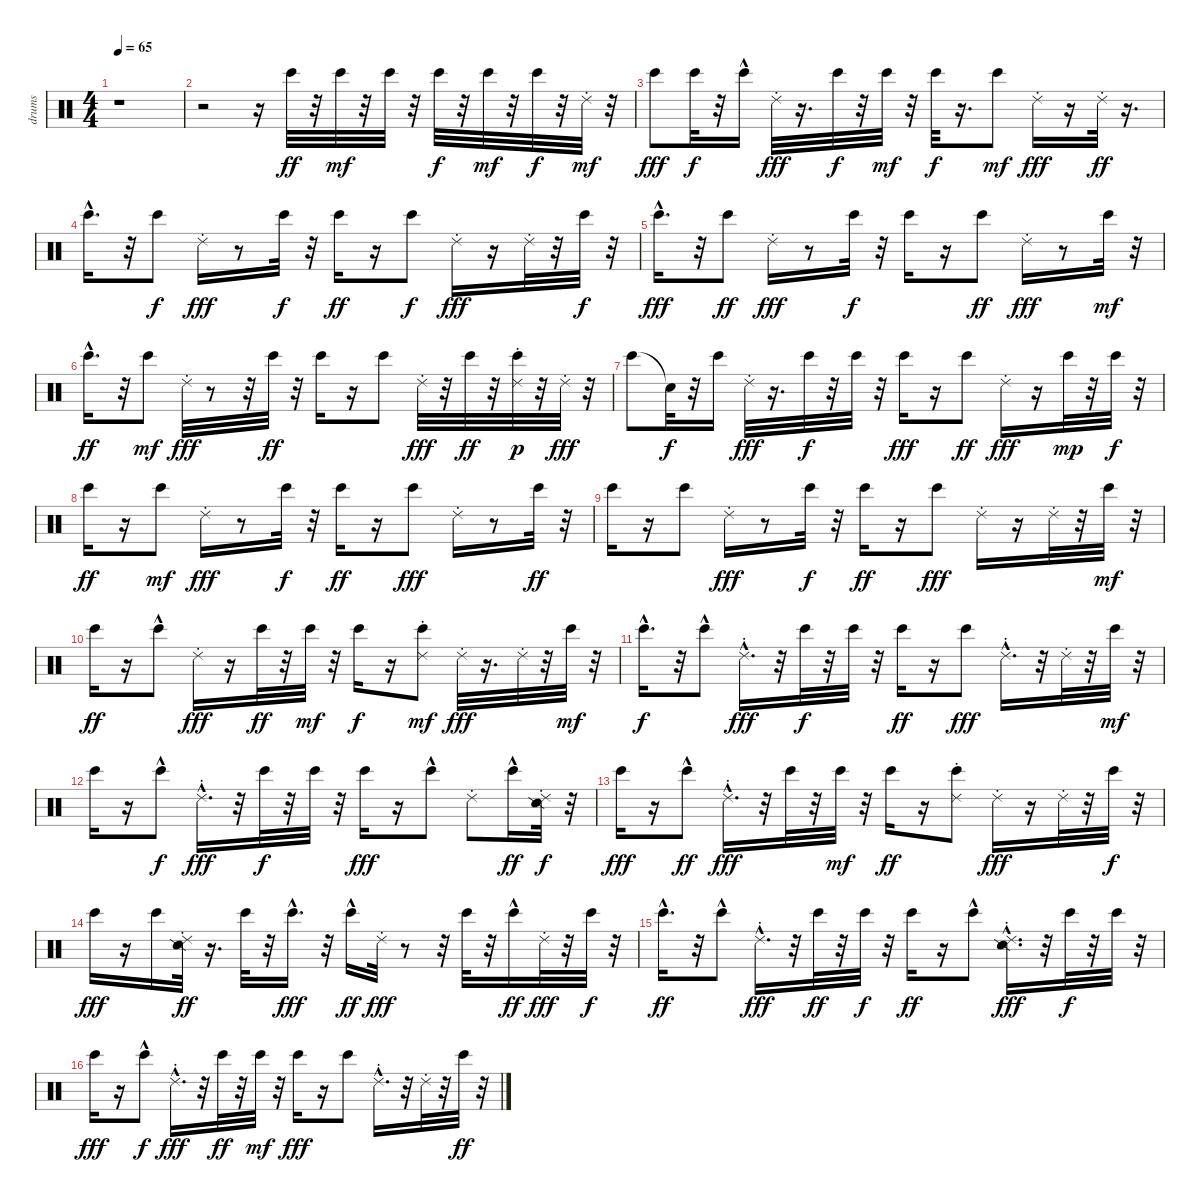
\track ("drums" "drums") {instrument percussion}
\staff {score}
\articulation defaults
\ts (4 4)
\tempo 65
\clef neutral
\ks c
r.1{dy mf} |
r.2 r.16 "Bongo High (hit)".32{dy ff volume 11} r.32 "Bongo High (hit)".32{dy mf} r.32 "Bongo High (hit)".32 r.32 "Bongo High (hit)".32{dy f} r.32 "Bongo High (hit)".32{dy mf} r.32 "Bongo High (hit)".32{dy f} r.32 "Ride (choke) 2".32{dy mf} r.32 |
"Bongo High (hit)".8{dy fff} "Bongo High (hit)".32{dy f} r.32 "Bongo High (hit)"{hac}.16 "Ride (choke) 2".32{dy fff} r.16{d} "Bongo High (hit)".32{dy f} r.32 "Bongo High (hit)".32{dy mf} r.32 "Bongo High (hit)".32{dy f} r.16{d} "Bongo High (hit)".8{dy mf} "Ride (choke) 2".16{dy fff} r.16 "Ride (choke) 2".32{dy ff} r.16{d} |
"Bongo High (hit)"{hac}.16{d} r.32 "Bongo High (hit)".8{dy f} "Ride (choke) 2".16{dy fff} r.8 "Bongo High (hit)".32{dy f} r.32 "Bongo High (hit)".16{dy ff} r.16 "Bongo High (hit)".8{dy f} "Ride (choke) 2".16{dy fff} r.16 "Ride (choke) 2".32 r.32 "Bongo High (hit)".32{dy f} r.32 |
"Bongo High (hit)"{hac}.16{d dy fff} r.32 "Bongo High (hit)".8{dy ff} "Ride (choke) 2".16{dy fff} r.8 "Bongo High (hit)".32{dy f} r.32 "Bongo High (hit)".16 r.16 "Bongo High (hit)".8{dy ff} "Ride (choke) 2".16{dy fff} r.8 "Bongo High (hit)".32{dy mf} r.32 |
"Bongo High (hit)"{hac}.16{d dy ff} r.32 "Bongo High (hit)".8{dy mf} "Ride (choke) 2".32{dy fff} r.8 r.32 "Bongo High (hit)".32{dy ff} r.32 "Bongo High (hit)".16 r.16 "Bongo High (hit)".8 "Ride (choke) 2".32{dy fff} r.32 "Bongo High (hit)".32{dy ff} r.32 ("Ride (choke) 2" "Bongo High (hit)").32{dy p} r.32 "Ride (choke) 2".32{dy fff} r.32 |
"Bongo High (hit)".8 "Snare (hit)"{t}.32{dy f} r.32 "Bongo High (hit)".16 "Ride (choke) 2".32{dy fff} r.16{d} "Bongo High (hit)".32{dy f} r.32 "Bongo High (hit)".32 r.32 "Bongo High (hit)".16{dy fff} r.16 "Bongo High (hit)".8{dy ff} "Ride (choke) 2".16{dy fff} r.16 "Bongo High (hit)".32{dy mp} r.32 "Bongo High (hit)".32{dy f} r.32 |
"Bongo High (hit)".16{dy ff} r.16 "Bongo High (hit)".8{dy mf} "Ride (choke) 2".16{dy fff} r.8 "Bongo High (hit)".32{dy f} r.32 "Bongo High (hit)".16{dy ff} r.16 "Bongo High (hit)".8{dy fff} "Ride (choke) 2".16 r.8 "Bongo High (hit)".32{dy ff} r.32 |
"Bongo High (hit)".16 r.16 "Bongo High (hit)".8 "Ride (choke) 2".16{dy fff} r.8 "Bongo High (hit)".32{dy f} r.32 "Bongo High (hit)".16{dy ff} r.16 "Bongo High (hit)".8{dy fff} "Ride (choke) 2".16 r.16 "Ride (choke) 2".32 r.32 "Bongo High (hit)".32{dy mf} r.32 |
"Bongo High (hit)".16{dy ff} r.16 "Bongo High (hit)"{hac}.8 "Ride (choke) 2".16{dy fff} r.16 "Bongo High (hit)".32{dy ff} r.32 "Bongo High (hit)".32{dy mf} r.32 "Bongo High (hit)".16{dy f} r.16 ("Ride (choke) 2" "Bongo High (hit)").8{dy mf} "Ride (choke) 2".32{dy fff} r.16{d} "Ride (choke) 2".32 r.32 "Bongo High (hit)".32{dy mf} r.32 |
"Bongo High (hit)"{hac}.16{d dy f} r.32 "Bongo High (hit)"{hac}.8 "Ride (choke) 2"{hac}.16{d dy fff} r.32 "Bongo High (hit)".32{dy f} r.32 "Bongo High (hit)".32 r.32 "Bongo High (hit)".16{dy ff} r.16 "Bongo High (hit)".8{dy fff} "Ride (choke) 2"{hac}.16{d} r.32 "Ride (choke) 2".32 r.32 "Bongo High (hit)".32{dy mf} r.32 |
"Bongo High (hit)".16 r.16 "Bongo High (hit)"{hac}.8{dy f} "Ride (choke) 2"{hac}.16{d dy fff} r.32 "Bongo High (hit)".32{dy f} r.32 "Bongo High (hit)".32 r.32 "Bongo High (hit)".16{dy fff} r.16 "Bongo High (hit)"{hac}.8 "Ride (choke) 2".8 "Bongo High (hit)"{hac}.16{dy ff} ("Snare (side stick) 2" "Ride (choke) 2").32{dy f} r.32 |
"Bongo High (hit)".16{dy fff} r.16 "Bongo High (hit)"{hac}.8{dy ff} "Ride (choke) 2"{hac}.16{d dy fff} r.32 "Bongo High (hit)".32 r.32 "Bongo High (hit)".32{dy mf} r.32 "Bongo High (hit)".16{dy ff} r.16 ("Ride (choke) 2" "Bongo High (hit)").8 "Ride (choke) 2".16{dy fff} r.16 "Ride (choke) 2".32 r.32 "Bongo High (hit)".32{dy f} r.32 |
"Bongo High (hit)".16{dy fff} r.16 "Bongo High (hit)".16 ("Ride (choke) 2" "Snare (side stick) 2").32{dy ff} r.16{d} "Bongo High (hit)".32 r.32 "Bongo High (hit)"{hac}.16{d dy fff} r.32 "Bongo High (hit)"{hac}.16{dy ff} "Ride (choke) 2".32{dy fff} r.8 r.32 "Bongo High (hit)".32 r.32 "Bongo High (hit)"{hac}.16{dy ff} "Ride (choke) 2".32{dy fff} r.32 "Bongo High (hit)".32{dy f} r.32 |
"Bongo High (hit)"{hac}.16{d dy ff} r.32 "Bongo High (hit)"{hac}.8 "Ride (choke) 2"{hac}.16{d dy fff} r.32 "Bongo High (hit)".32{dy ff} r.32 "Bongo High (hit)".32{dy f} r.32 "Bongo High (hit)".16{dy ff} r.16 "Bongo High (hit)"{hac}.8 ("Snare (side stick) 2" "Ride (choke) 2"{hac}).16{d dy fff} r.32 "Bongo High (hit)".32{dy f} r.32 "Bongo High (hit)".32 r.32 |
"Bongo High (hit)".16{dy fff} r.16 "Bongo High (hit)"{hac}.8{dy f} "Ride (choke) 2"{hac}.16{d dy fff} r.32 "Bongo High (hit)".32{dy ff} r.32 "Bongo High (hit)".32{dy mf} r.32 "Bongo High (hit)".16{dy fff} r.16 "Bongo High (hit)".8 "Ride (choke) 2"{hac}.16{d} r.32 "Ride (choke) 2".32 r.32 "Bongo High (hit)".32{dy ff} r.32
